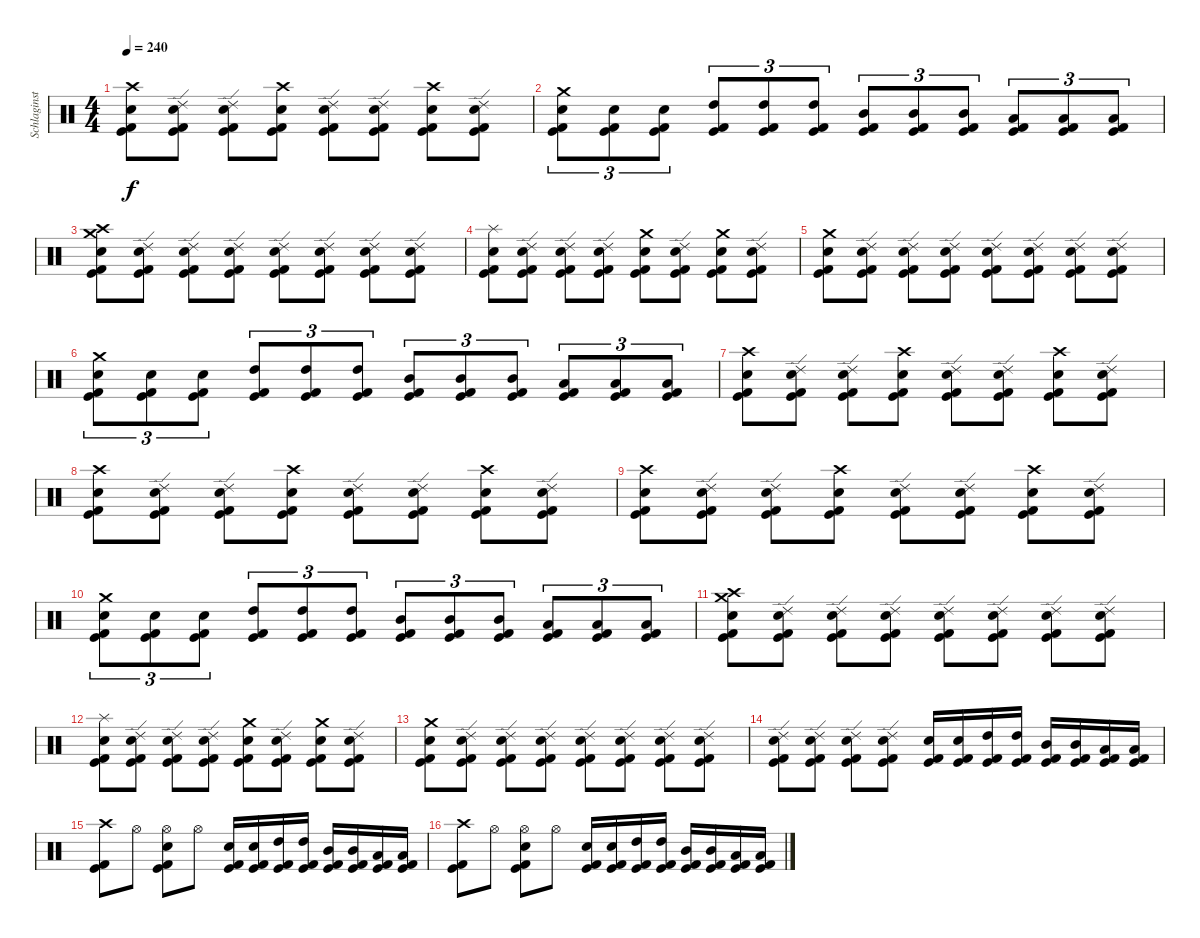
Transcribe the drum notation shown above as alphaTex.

\track ("Schlaginstrumente - Auswahl" "Schlaginst") {instrument percussion}
\staff {score}
\articulation defaults
\ts (4 4)
\tempo 240
\clef neutral
\ks c
("Crash high (hit)" "Electric Snare (hit)" "Kick (hit)" "Kick (hit) 2").8{dy f} ("Ride (edge) 2" "Electric Snare (hit)" "Kick (hit)" "Kick (hit) 2").8 ("Ride (edge) 2" "Electric Snare (hit)" "Kick (hit)" "Kick (hit) 2").8 ("Crash high (hit)" "Electric Snare (hit)" "Kick (hit)" "Kick (hit) 2").8 ("Ride (edge) 2" "Electric Snare (hit)" "Kick (hit)" "Kick (hit) 2").8 ("Ride (edge) 2" "Electric Snare (hit)" "Kick (hit)" "Kick (hit) 2").8 ("Crash high (hit)" "Electric Snare (hit)" "Kick (hit)" "Kick (hit) 2").8 ("Ride (edge) 2" "Electric Snare (hit)" "Kick (hit)" "Kick (hit) 2").8 |
("Crash medium (hit)" "Electric Snare (hit)" "Kick (hit)" "Kick (hit) 2").8{tu (3 2)} ("Electric Snare (hit)" "Kick (hit)" "Kick (hit) 2").8{tu (3 2)} ("Electric Snare (hit)" "Kick (hit)" "Kick (hit) 2").8{tu (3 2)} ("High Tom (hit)" "Kick (hit)" "Kick (hit) 2").8{tu (3 2)} ("High Tom (hit)" "Kick (hit)" "Kick (hit) 2").8{tu (3 2)} ("High Tom (hit)" "Kick (hit)" "Kick (hit) 2").8{tu (3 2)} ("Mid Tom (hit)" "Kick (hit)" "Kick (hit) 2").8{tu (3 2)} ("Mid Tom (hit)" "Kick (hit)" "Kick (hit) 2").8{tu (3 2)} ("Mid Tom (hit)" "Kick (hit)" "Kick (hit) 2").8{tu (3 2)} ("Low Tom (hit)" "Kick (hit)" "Kick (hit) 2").8{tu (3 2)} ("Low Tom (hit)" "Kick (hit)" "Kick (hit) 2").8{tu (3 2)} ("Low Tom (hit)" "Kick (hit)" "Kick (hit) 2").8{tu (3 2)} |
("Crash medium (hit)" "Crash high (hit)" "Electric Snare (hit)" "Kick (hit)" "Kick (hit) 2").8 ("Ride (edge) 2" "Electric Snare (hit)" "Kick (hit)" "Kick (hit) 2").8 ("Ride (edge) 2" "Electric Snare (hit)" "Kick (hit)" "Kick (hit) 2").8 ("Ride (edge) 2" "Electric Snare (hit)" "Kick (hit)" "Kick (hit) 2").8 ("Ride (edge) 2" "Electric Snare (hit)" "Kick (hit)" "Kick (hit) 2").8 ("Ride (edge) 2" "Electric Snare (hit)" "Kick (hit)" "Kick (hit) 2").8 ("Ride (edge) 2" "Electric Snare (hit)" "Kick (hit)" "Kick (hit) 2").8 ("Ride (edge) 2" "Electric Snare (hit)" "Kick (hit)" "Kick (hit) 2").8 |
("Splash (hit)" "Electric Snare (hit)" "Kick (hit)" "Kick (hit) 2").8 ("Ride (edge) 2" "Electric Snare (hit)" "Kick (hit)" "Kick (hit) 2").8 ("Ride (edge) 2" "Electric Snare (hit)" "Kick (hit)" "Kick (hit) 2").8 ("Ride (edge) 2" "Electric Snare (hit)" "Kick (hit)" "Kick (hit) 2").8 ("Crash medium (hit)" "Electric Snare (hit)" "Kick (hit)" "Kick (hit) 2").8 ("Ride (edge) 2" "Electric Snare (hit)" "Kick (hit)" "Kick (hit) 2").8 ("Crash medium (hit)" "Electric Snare (hit)" "Kick (hit)" "Kick (hit) 2").8 ("Ride (edge) 2" "Electric Snare (hit)" "Kick (hit)" "Kick (hit) 2").8 |
("Crash medium (hit)" "Electric Snare (hit)" "Kick (hit)" "Kick (hit) 2").8 ("Ride (edge) 2" "Electric Snare (hit)" "Kick (hit)" "Kick (hit) 2").8 ("Ride (edge) 2" "Electric Snare (hit)" "Kick (hit)" "Kick (hit) 2").8 ("Ride (edge) 2" "Electric Snare (hit)" "Kick (hit)" "Kick (hit) 2").8 ("Ride (edge) 2" "Electric Snare (hit)" "Kick (hit)" "Kick (hit) 2").8 ("Ride (edge) 2" "Electric Snare (hit)" "Kick (hit)" "Kick (hit) 2").8 ("Ride (edge) 2" "Electric Snare (hit)" "Kick (hit)" "Kick (hit) 2").8 ("Ride (edge) 2" "Electric Snare (hit)" "Kick (hit)" "Kick (hit) 2").8 |
("Crash medium (hit)" "Electric Snare (hit)" "Kick (hit)" "Kick (hit) 2").8{tu (3 2)} ("Electric Snare (hit)" "Kick (hit)" "Kick (hit) 2").8{tu (3 2)} ("Electric Snare (hit)" "Kick (hit)" "Kick (hit) 2").8{tu (3 2)} ("High Tom (hit)" "Kick (hit)" "Kick (hit) 2").8{tu (3 2)} ("High Tom (hit)" "Kick (hit)" "Kick (hit) 2").8{tu (3 2)} ("High Tom (hit)" "Kick (hit)" "Kick (hit) 2").8{tu (3 2)} ("Mid Tom (hit)" "Kick (hit)" "Kick (hit) 2").8{tu (3 2)} ("Mid Tom (hit)" "Kick (hit)" "Kick (hit) 2").8{tu (3 2)} ("Mid Tom (hit)" "Kick (hit)" "Kick (hit) 2").8{tu (3 2)} ("Low Tom (hit)" "Kick (hit)" "Kick (hit) 2").8{tu (3 2)} ("Low Tom (hit)" "Kick (hit)" "Kick (hit) 2").8{tu (3 2)} ("Low Tom (hit)" "Kick (hit)" "Kick (hit) 2").8{tu (3 2)} |
("Crash high (hit)" "Electric Snare (hit)" "Kick (hit)" "Kick (hit) 2").8 ("Ride (edge) 2" "Electric Snare (hit)" "Kick (hit)" "Kick (hit) 2").8 ("Ride (edge) 2" "Electric Snare (hit)" "Kick (hit)" "Kick (hit) 2").8 ("Crash high (hit)" "Electric Snare (hit)" "Kick (hit)" "Kick (hit) 2").8 ("Ride (edge) 2" "Electric Snare (hit)" "Kick (hit)" "Kick (hit) 2").8 ("Ride (edge) 2" "Electric Snare (hit)" "Kick (hit)" "Kick (hit) 2").8 ("Crash high (hit)" "Electric Snare (hit)" "Kick (hit)" "Kick (hit) 2").8 ("Ride (edge) 2" "Electric Snare (hit)" "Kick (hit)" "Kick (hit) 2").8 |
("Crash high (hit)" "Electric Snare (hit)" "Kick (hit)" "Kick (hit) 2").8 ("Ride (edge) 2" "Electric Snare (hit)" "Kick (hit)" "Kick (hit) 2").8 ("Ride (edge) 2" "Electric Snare (hit)" "Kick (hit)" "Kick (hit) 2").8 ("Crash high (hit)" "Electric Snare (hit)" "Kick (hit)" "Kick (hit) 2").8 ("Ride (edge) 2" "Electric Snare (hit)" "Kick (hit)" "Kick (hit) 2").8 ("Ride (edge) 2" "Electric Snare (hit)" "Kick (hit)" "Kick (hit) 2").8 ("Crash high (hit)" "Electric Snare (hit)" "Kick (hit)" "Kick (hit) 2").8 ("Ride (edge) 2" "Electric Snare (hit)" "Kick (hit)" "Kick (hit) 2").8 |
("Crash high (hit)" "Electric Snare (hit)" "Kick (hit)" "Kick (hit) 2").8 ("Ride (edge) 2" "Electric Snare (hit)" "Kick (hit)" "Kick (hit) 2").8 ("Ride (edge) 2" "Electric Snare (hit)" "Kick (hit)" "Kick (hit) 2").8 ("Crash high (hit)" "Electric Snare (hit)" "Kick (hit)" "Kick (hit) 2").8 ("Ride (edge) 2" "Electric Snare (hit)" "Kick (hit)" "Kick (hit) 2").8 ("Ride (edge) 2" "Electric Snare (hit)" "Kick (hit)" "Kick (hit) 2").8 ("Crash high (hit)" "Electric Snare (hit)" "Kick (hit)" "Kick (hit) 2").8 ("Ride (edge) 2" "Electric Snare (hit)" "Kick (hit)" "Kick (hit) 2").8 |
("Crash medium (hit)" "Electric Snare (hit)" "Kick (hit)" "Kick (hit) 2").8{tu (3 2)} ("Electric Snare (hit)" "Kick (hit)" "Kick (hit) 2").8{tu (3 2)} ("Electric Snare (hit)" "Kick (hit)" "Kick (hit) 2").8{tu (3 2)} ("High Tom (hit)" "Kick (hit)" "Kick (hit) 2").8{tu (3 2)} ("High Tom (hit)" "Kick (hit)" "Kick (hit) 2").8{tu (3 2)} ("High Tom (hit)" "Kick (hit)" "Kick (hit) 2").8{tu (3 2)} ("Mid Tom (hit)" "Kick (hit)" "Kick (hit) 2").8{tu (3 2)} ("Mid Tom (hit)" "Kick (hit)" "Kick (hit) 2").8{tu (3 2)} ("Mid Tom (hit)" "Kick (hit)" "Kick (hit) 2").8{tu (3 2)} ("Low Tom (hit)" "Kick (hit)" "Kick (hit) 2").8{tu (3 2)} ("Low Tom (hit)" "Kick (hit)" "Kick (hit) 2").8{tu (3 2)} ("Low Tom (hit)" "Kick (hit)" "Kick (hit) 2").8{tu (3 2)} |
("Crash medium (hit)" "Crash high (hit)" "Electric Snare (hit)" "Kick (hit)" "Kick (hit) 2").8 ("Ride (edge) 2" "Electric Snare (hit)" "Kick (hit)" "Kick (hit) 2").8 ("Ride (edge) 2" "Electric Snare (hit)" "Kick (hit)" "Kick (hit) 2").8 ("Ride (edge) 2" "Electric Snare (hit)" "Kick (hit)" "Kick (hit) 2").8 ("Ride (edge) 2" "Electric Snare (hit)" "Kick (hit)" "Kick (hit) 2").8 ("Ride (edge) 2" "Electric Snare (hit)" "Kick (hit)" "Kick (hit) 2").8 ("Ride (edge) 2" "Electric Snare (hit)" "Kick (hit)" "Kick (hit) 2").8 ("Ride (edge) 2" "Electric Snare (hit)" "Kick (hit)" "Kick (hit) 2").8 |
("Splash (hit)" "Electric Snare (hit)" "Kick (hit)" "Kick (hit) 2").8 ("Ride (edge) 2" "Electric Snare (hit)" "Kick (hit)" "Kick (hit) 2").8 ("Ride (edge) 2" "Electric Snare (hit)" "Kick (hit)" "Kick (hit) 2").8 ("Ride (edge) 2" "Electric Snare (hit)" "Kick (hit)" "Kick (hit) 2").8 ("Crash medium (hit)" "Electric Snare (hit)" "Kick (hit)" "Kick (hit) 2").8 ("Ride (edge) 2" "Electric Snare (hit)" "Kick (hit)" "Kick (hit) 2").8 ("Crash medium (hit)" "Electric Snare (hit)" "Kick (hit)" "Kick (hit) 2").8 ("Ride (edge) 2" "Electric Snare (hit)" "Kick (hit)" "Kick (hit) 2").8 |
("Crash medium (hit)" "Electric Snare (hit)" "Kick (hit)" "Kick (hit) 2").8 ("Ride (edge) 2" "Electric Snare (hit)" "Kick (hit)" "Kick (hit) 2").8 ("Ride (edge) 2" "Electric Snare (hit)" "Kick (hit)" "Kick (hit) 2").8 ("Ride (edge) 2" "Electric Snare (hit)" "Kick (hit)" "Kick (hit) 2").8 ("Ride (edge) 2" "Electric Snare (hit)" "Kick (hit)" "Kick (hit) 2").8 ("Ride (edge) 2" "Electric Snare (hit)" "Kick (hit)" "Kick (hit) 2").8 ("Ride (edge) 2" "Electric Snare (hit)" "Kick (hit)" "Kick (hit) 2").8 ("Ride (edge) 2" "Electric Snare (hit)" "Kick (hit)" "Kick (hit) 2").8 |
("Ride (edge) 2" "Electric Snare (hit)" "Kick (hit)" "Kick (hit) 2").8 ("Ride (edge) 2" "Electric Snare (hit)" "Kick (hit)" "Kick (hit) 2").8 ("Ride (edge) 2" "Electric Snare (hit)" "Kick (hit)" "Kick (hit) 2").8 ("Ride (edge) 2" "Electric Snare (hit)" "Kick (hit)" "Kick (hit) 2").8 ("Electric Snare (hit)" "Kick (hit)" "Kick (hit) 2").16 ("Electric Snare (hit)" "Kick (hit)" "Kick (hit) 2").16 ("High Tom (hit)" "Kick (hit)" "Kick (hit) 2").16 ("High Tom (hit)" "Kick (hit)" "Kick (hit) 2").16 ("Mid Tom (hit)" "Kick (hit)" "Kick (hit) 2").16 ("Mid Tom (hit)" "Kick (hit)" "Kick (hit) 2").16 ("Low Tom (hit)" "Kick (hit)" "Kick (hit) 2").16 ("Low Tom (hit)" "Kick (hit)" "Kick (hit) 2").16 |
("Crash high (hit)" "Kick (hit)" "Kick (hit) 2").8 "Hi-Hat (open)".8 ("Hi-Hat (open)" "Electric Snare (hit)" "Kick (hit)" "Kick (hit) 2").8 "Hi-Hat (open)".8 ("Electric Snare (hit)" "Kick (hit)" "Kick (hit) 2").16 ("Electric Snare (hit)" "Kick (hit)" "Kick (hit) 2").16 ("High Tom (hit)" "Kick (hit)" "Kick (hit) 2").16 ("High Tom (hit)" "Kick (hit)" "Kick (hit) 2").16 ("Mid Tom (hit)" "Kick (hit)" "Kick (hit) 2").16 ("Mid Tom (hit)" "Kick (hit)" "Kick (hit) 2").16 ("Low Tom (hit)" "Kick (hit)" "Kick (hit) 2").16 ("Low Tom (hit)" "Kick (hit)" "Kick (hit) 2").16 |
("Crash high (hit)" "Kick (hit)" "Kick (hit) 2").8 "Hi-Hat (open)".8 ("Hi-Hat (open)" "Electric Snare (hit)" "Kick (hit)" "Kick (hit) 2").8 "Hi-Hat (open)".8 ("Electric Snare (hit)" "Kick (hit)" "Kick (hit) 2").16 ("Electric Snare (hit)" "Kick (hit)" "Kick (hit) 2").16 ("High Tom (hit)" "Kick (hit)" "Kick (hit) 2").16 ("High Tom (hit)" "Kick (hit)" "Kick (hit) 2").16 ("Mid Tom (hit)" "Kick (hit)" "Kick (hit) 2").16 ("Mid Tom (hit)" "Kick (hit)" "Kick (hit) 2").16 ("Low Tom (hit)" "Kick (hit)" "Kick (hit) 2").16 ("Low Tom (hit)" "Kick (hit)" "Kick (hit) 2").16
